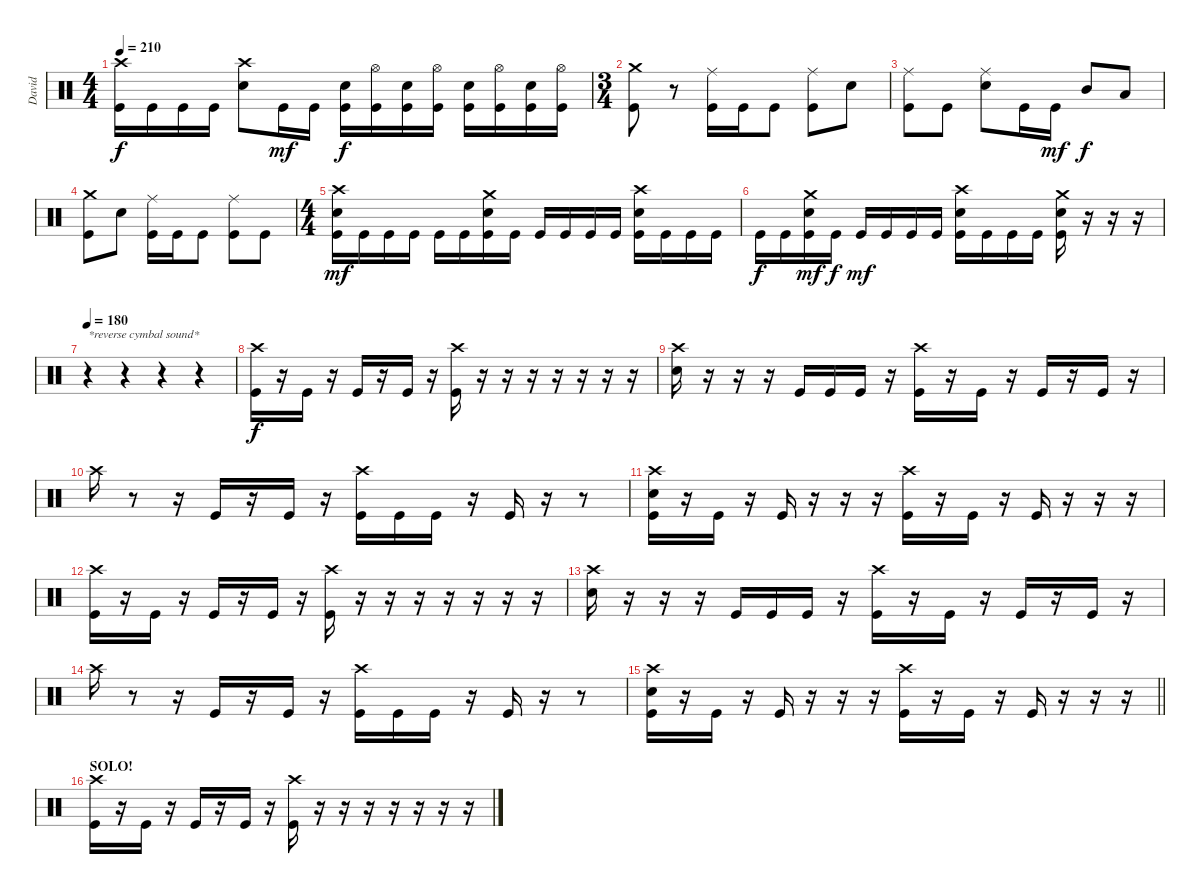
\track ("David" "David") {instrument percussion}
\staff {score}
\articulation defaults
\ts (4 4)
\tempo 210
\clef neutral
\ks c
("Crash high (hit)" "Kick (hit)").16{dy f} "Kick (hit)".16 "Kick (hit)".16 "Kick (hit)".16 ("Crash high (hit)" "Electric Snare (hit)").8 "Kick (hit)".16{dy mf} "Kick (hit)".16 ("Electric Snare (hit)" "Kick (hit)").16{dy f} ("Hi-Hat (open)" "Kick (hit)").16 ("Electric Snare (hit)" "Kick (hit)").16 ("Hi-Hat (open)" "Kick (hit)").16 ("Electric Snare (hit)" "Kick (hit)").16 ("Hi-Hat (open)" "Kick (hit)").16 ("Electric Snare (hit)" "Kick (hit)").16 ("Hi-Hat (open)" "Kick (hit)").16 |
\ts (3 4)
("Crash medium (hit)" "Kick (hit)").8 r.8 ("Ride (middle)" "Kick (hit)").16 "Kick (hit)".16 "Kick (hit)".8 ("Ride (middle)" "Kick (hit)").8 "Electric Snare (hit)".8 |
("Ride (middle)" "Kick (hit)").8 "Kick (hit)".8 ("Ride (middle)" "Electric Snare (hit)").8 "Kick (hit)".16 "Kick (hit)".16{dy mf} "Mid Tom (hit)".8{dy f} "Low Tom (hit)".8 |
("Crash medium (hit)" "Kick (hit)").8 "Electric Snare (hit)".8 ("Ride (middle)" "Kick (hit)").16 "Kick (hit)".16 "Kick (hit)".8 ("Ride (middle)" "Kick (hit)").8 "Kick (hit)".8 |
\ts (4 4)
("Crash high (hit)" "Electric Snare (hit)" "Kick (hit)").16{dy mf} "Kick (hit)".16 "Kick (hit)".16 "Kick (hit)".16 "Kick (hit)".16 "Kick (hit)".16 ("Crash medium (hit)" "Electric Snare (hit)" "Kick (hit)").16 "Kick (hit)".16 "Kick (hit)".16 "Kick (hit)".16 "Kick (hit)".16 "Kick (hit)".16 ("Crash high (hit)" "Electric Snare (hit)" "Kick (hit)").16 "Kick (hit)".16 "Kick (hit)".16 "Kick (hit)".16 |
"Kick (hit)".16{dy f} "Kick (hit)".16 ("Crash medium (hit)" "Electric Snare (hit)" "Kick (hit)").16{dy mf} "Kick (hit)".16{dy f} "Kick (hit)".16{dy mf} "Kick (hit)".16 "Kick (hit)".16 "Kick (hit)".16 ("Crash high (hit)" "Electric Snare (hit)" "Kick (hit)").16 "Kick (hit)".16 "Kick (hit)".16 "Kick (hit)".16 ("Crash medium (hit)" "Electric Snare (hit)" "Kick (hit)").16 r.16 r.16 r.16 |
\tempo 180
r.4{txt "*reverse cymbal sound*"} r.4 r.4 r.4 |
("Crash high (hit)" "Kick (hit)").16{dy f} r.16 "Kick (hit)".16 r.16 "Kick (hit)".16 r.16 "Kick (hit)".16 r.16 ("Crash high (hit)" "Kick (hit)").16 r.16 r.16 r.16 r.16 r.16 r.16 r.16 |
("Crash high (hit)" "Electric Snare (hit)").16 r.16 r.16 r.16 "Kick (hit)".16 "Kick (hit)".16 "Kick (hit)".16 r.16 ("Crash high (hit)" "Kick (hit)").16 r.16 "Kick (hit)".16 r.16 "Kick (hit)".16 r.16 "Kick (hit)".16 r.16 |
"Crash high (hit)".16 r.8 r.16 "Kick (hit)".16 r.16 "Kick (hit)".16 r.16 ("Crash high (hit)" "Kick (hit)").16 "Kick (hit)".16 "Kick (hit)".16 r.16 "Kick (hit)".16 r.16 r.8 |
("Crash high (hit)" "Electric Snare (hit)" "Kick (hit)").16 r.16 "Kick (hit)".16 r.16 "Kick (hit)".16 r.16 r.16 r.16 ("Crash high (hit)" "Kick (hit)").16 r.16 "Kick (hit)".16 r.16 "Kick (hit)".16 r.16 r.16 r.16 |
("Crash high (hit)" "Kick (hit)").16 r.16 "Kick (hit)".16 r.16 "Kick (hit)".16 r.16 "Kick (hit)".16 r.16 ("Crash high (hit)" "Kick (hit)").16 r.16 r.16 r.16 r.16 r.16 r.16 r.16 |
("Crash high (hit)" "Electric Snare (hit)").16 r.16 r.16 r.16 "Kick (hit)".16 "Kick (hit)".16 "Kick (hit)".16 r.16 ("Crash high (hit)" "Kick (hit)").16 r.16 "Kick (hit)".16 r.16 "Kick (hit)".16 r.16 "Kick (hit)".16 r.16 |
"Crash high (hit)".16 r.8 r.16 "Kick (hit)".16 r.16 "Kick (hit)".16 r.16 ("Crash high (hit)" "Kick (hit)").16 "Kick (hit)".16 "Kick (hit)".16 r.16 "Kick (hit)".16 r.16 r.8 |
\barLineRight lightlight
("Crash high (hit)" "Electric Snare (hit)" "Kick (hit)").16 r.16 "Kick (hit)".16 r.16 "Kick (hit)".16 r.16 r.16 r.16 ("Crash high (hit)" "Kick (hit)").16 r.16 "Kick (hit)".16 r.16 "Kick (hit)".16 r.16 r.16 r.16 |
\section ("" "SOLO!")
("Crash high (hit)" "Kick (hit)").16 r.16 "Kick (hit)".16 r.16 "Kick (hit)".16 r.16 "Kick (hit)".16 r.16 ("Crash high (hit)" "Kick (hit)").16 r.16 r.16 r.16 r.16 r.16 r.16 r.16
